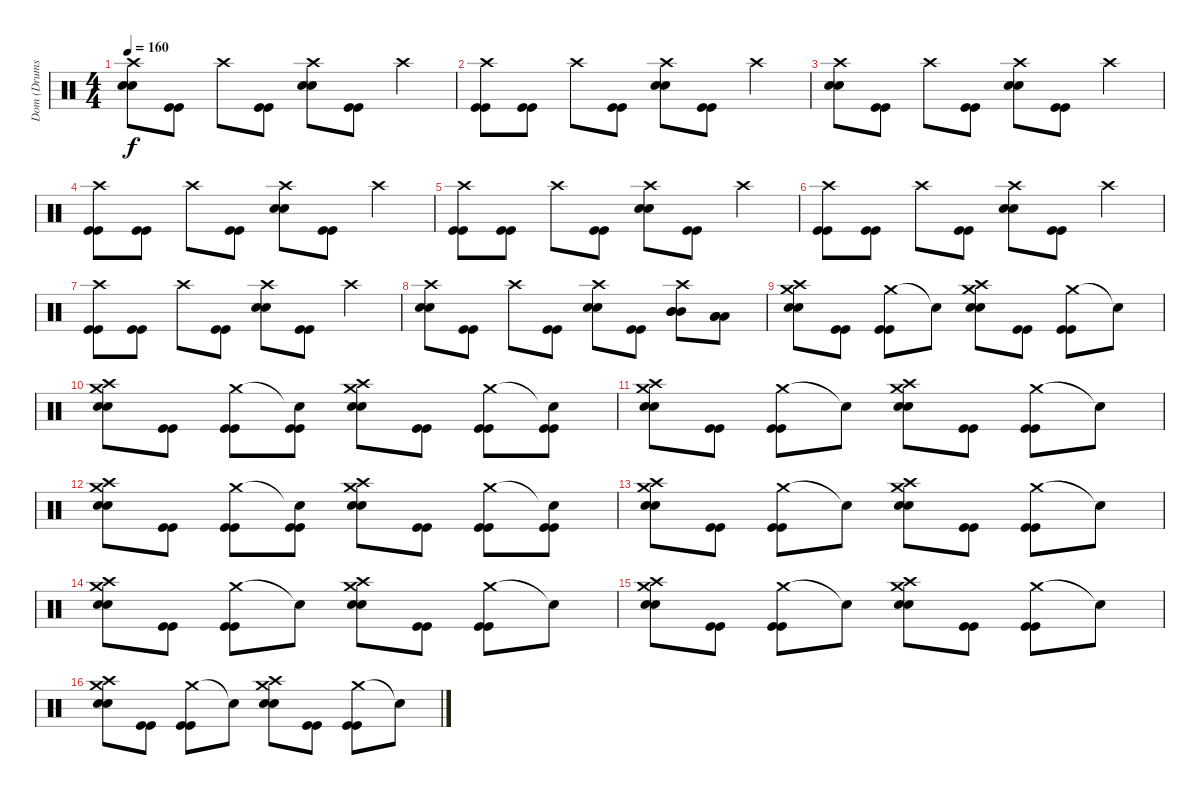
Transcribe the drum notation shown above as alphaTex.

\track ("Dom (Drums)" "Dom (Drums") {instrument percussion}
\staff {score}
\articulation defaults
\ts (4 4)
\tempo 160
\clef neutral
\ks c
("Crash high (hit)" "Snare (hit) 2" "Snare (hit) 2").8{dy f} ("Kick (hit)" "Kick (hit)").8 "Crash high (hit)".8 ("Kick (hit)" "Kick (hit)").8 ("Crash high (hit)" "Snare (hit) 2" "Snare (hit) 2").8 ("Kick (hit)" "Kick (hit)").8 "Crash high (hit)".4 |
("Crash high (hit)" "Kick (hit)" "Kick (hit)").8 ("Kick (hit)" "Kick (hit)").8 "Crash high (hit)".8 ("Kick (hit)" "Kick (hit)").8 ("Crash high (hit)" "Snare (hit) 2" "Snare (hit) 2").8 ("Kick (hit)" "Kick (hit)").8 "Crash high (hit)".4 |
("Crash high (hit)" "Snare (hit) 2" "Snare (hit) 2").8 ("Kick (hit)" "Kick (hit)").8 "Crash high (hit)".8 ("Kick (hit)" "Kick (hit)").8 ("Crash high (hit)" "Snare (hit) 2" "Snare (hit) 2").8 ("Kick (hit)" "Kick (hit)").8 "Crash high (hit)".4 |
("Crash high (hit)" "Kick (hit)" "Kick (hit)").8 ("Kick (hit)" "Kick (hit)").8 "Crash high (hit)".8 ("Kick (hit)" "Kick (hit)").8 ("Crash high (hit)" "Snare (hit) 2" "Snare (hit) 2").8 ("Kick (hit)" "Kick (hit)").8 "Crash high (hit)".4 |
("Crash high (hit)" "Kick (hit)" "Kick (hit)").8 ("Kick (hit)" "Kick (hit)").8 "Crash high (hit)".8 ("Kick (hit)" "Kick (hit)").8 ("Crash high (hit)" "Snare (hit) 2" "Snare (hit) 2").8 ("Kick (hit)" "Kick (hit)").8 "Crash high (hit)".4 |
("Crash high (hit)" "Kick (hit)" "Kick (hit)").8 ("Kick (hit)" "Kick (hit)").8 "Crash high (hit)".8 ("Kick (hit)" "Kick (hit)").8 ("Crash high (hit)" "Snare (hit) 2" "Snare (hit) 2").8 ("Kick (hit)" "Kick (hit)").8 "Crash high (hit)".4 |
("Crash high (hit)" "Kick (hit)" "Kick (hit)").8 ("Kick (hit)" "Kick (hit)").8 "Crash high (hit)".8 ("Kick (hit)" "Kick (hit)").8 ("Crash high (hit)" "Snare (hit) 2" "Snare (hit) 2").8 ("Kick (hit)" "Kick (hit)").8 "Crash high (hit)".4 |
("Crash high (hit)" "Snare (hit) 2" "Snare (hit) 2").8 ("Kick (hit)" "Kick (hit)").8 "Crash high (hit)".8 ("Kick (hit)" "Kick (hit)").8 ("Crash high (hit)" "Snare (hit) 2" "Snare (hit) 2").8 ("Kick (hit)" "Kick (hit)").8 ("Crash high (hit)" "Mid Tom (hit)" "Mid Tom (hit)" "Mid Tom (hit)").8 ("Low Tom (hit)" "Low Tom (hit)" "Low Tom (hit)").8 |
("Crash medium (hit)" "Crash high (hit)" "Snare (hit) 2" "Snare (hit) 2").8 ("Kick (hit)" "Kick (hit)").8 ("Crash medium (hit)" "Kick (hit)" "Kick (hit)").8 "Snare (hit)"{t}.8 ("Crash medium (hit)" "Crash high (hit)" "Snare (hit) 2" "Snare (hit) 2").8 ("Kick (hit)" "Kick (hit)").8 ("Crash medium (hit)" "Kick (hit)" "Kick (hit)").8 "Snare (hit)"{t}.8 |
("Crash medium (hit)" "Crash high (hit)" "Snare (hit) 2" "Snare (hit) 2").8 ("Kick (hit)" "Kick (hit)").8 ("Crash medium (hit)" "Kick (hit)" "Kick (hit)").8 ("Snare (hit)"{t} "Kick (hit)" "Kick (hit)").8 ("Crash medium (hit)" "Crash high (hit)" "Snare (hit) 2" "Snare (hit) 2").8 ("Kick (hit)" "Kick (hit)").8 ("Crash medium (hit)" "Kick (hit)" "Kick (hit)").8 ("Snare (hit)"{t} "Kick (hit)" "Kick (hit)").8 |
("Crash medium (hit)" "Crash high (hit)" "Snare (hit) 2" "Snare (hit) 2").8 ("Kick (hit)" "Kick (hit)").8 ("Crash medium (hit)" "Kick (hit)" "Kick (hit)").8 "Snare (hit)"{t}.8 ("Crash medium (hit)" "Crash high (hit)" "Snare (hit) 2" "Snare (hit) 2").8 ("Kick (hit)" "Kick (hit)").8 ("Crash medium (hit)" "Kick (hit)" "Kick (hit)").8 "Snare (hit)"{t}.8 |
("Crash medium (hit)" "Crash high (hit)" "Snare (hit) 2" "Snare (hit) 2").8 ("Kick (hit)" "Kick (hit)").8 ("Crash medium (hit)" "Kick (hit)" "Kick (hit)").8 ("Snare (hit)"{t} "Kick (hit)" "Kick (hit)").8 ("Crash medium (hit)" "Crash high (hit)" "Snare (hit) 2" "Snare (hit) 2").8 ("Kick (hit)" "Kick (hit)").8 ("Crash medium (hit)" "Kick (hit)" "Kick (hit)").8 ("Snare (hit)"{t} "Kick (hit)" "Kick (hit)").8 |
("Crash medium (hit)" "Crash high (hit)" "Snare (hit) 2" "Snare (hit) 2").8 ("Kick (hit)" "Kick (hit)").8 ("Crash medium (hit)" "Kick (hit)" "Kick (hit)").8 "Snare (hit)"{t}.8 ("Crash medium (hit)" "Crash high (hit)" "Snare (hit) 2" "Snare (hit) 2").8 ("Kick (hit)" "Kick (hit)").8 ("Crash medium (hit)" "Kick (hit)" "Kick (hit)").8 "Snare (hit)"{t}.8 |
("Crash medium (hit)" "Crash high (hit)" "Snare (hit) 2" "Snare (hit) 2").8 ("Kick (hit)" "Kick (hit)").8 ("Crash medium (hit)" "Kick (hit)" "Kick (hit)").8 "Snare (hit)"{t}.8 ("Crash medium (hit)" "Crash high (hit)" "Snare (hit) 2" "Snare (hit) 2").8 ("Kick (hit)" "Kick (hit)").8 ("Crash medium (hit)" "Kick (hit)" "Kick (hit)").8 "Snare (hit)"{t}.8 |
("Crash medium (hit)" "Crash high (hit)" "Snare (hit) 2" "Snare (hit) 2").8 ("Kick (hit)" "Kick (hit)").8 ("Crash medium (hit)" "Kick (hit)" "Kick (hit)").8 "Snare (hit)"{t}.8 ("Crash medium (hit)" "Crash high (hit)" "Snare (hit) 2" "Snare (hit) 2").8 ("Kick (hit)" "Kick (hit)").8 ("Crash medium (hit)" "Kick (hit)" "Kick (hit)").8 "Snare (hit)"{t}.8 |
("Crash medium (hit)" "Crash high (hit)" "Snare (hit) 2" "Snare (hit) 2").8 ("Kick (hit)" "Kick (hit)").8 ("Crash medium (hit)" "Kick (hit)" "Kick (hit)").8 "Snare (hit)"{t}.8 ("Crash medium (hit)" "Crash high (hit)" "Snare (hit) 2" "Snare (hit) 2").8 ("Kick (hit)" "Kick (hit)").8 ("Crash medium (hit)" "Kick (hit)" "Kick (hit)").8 "Snare (hit)"{t}.8
